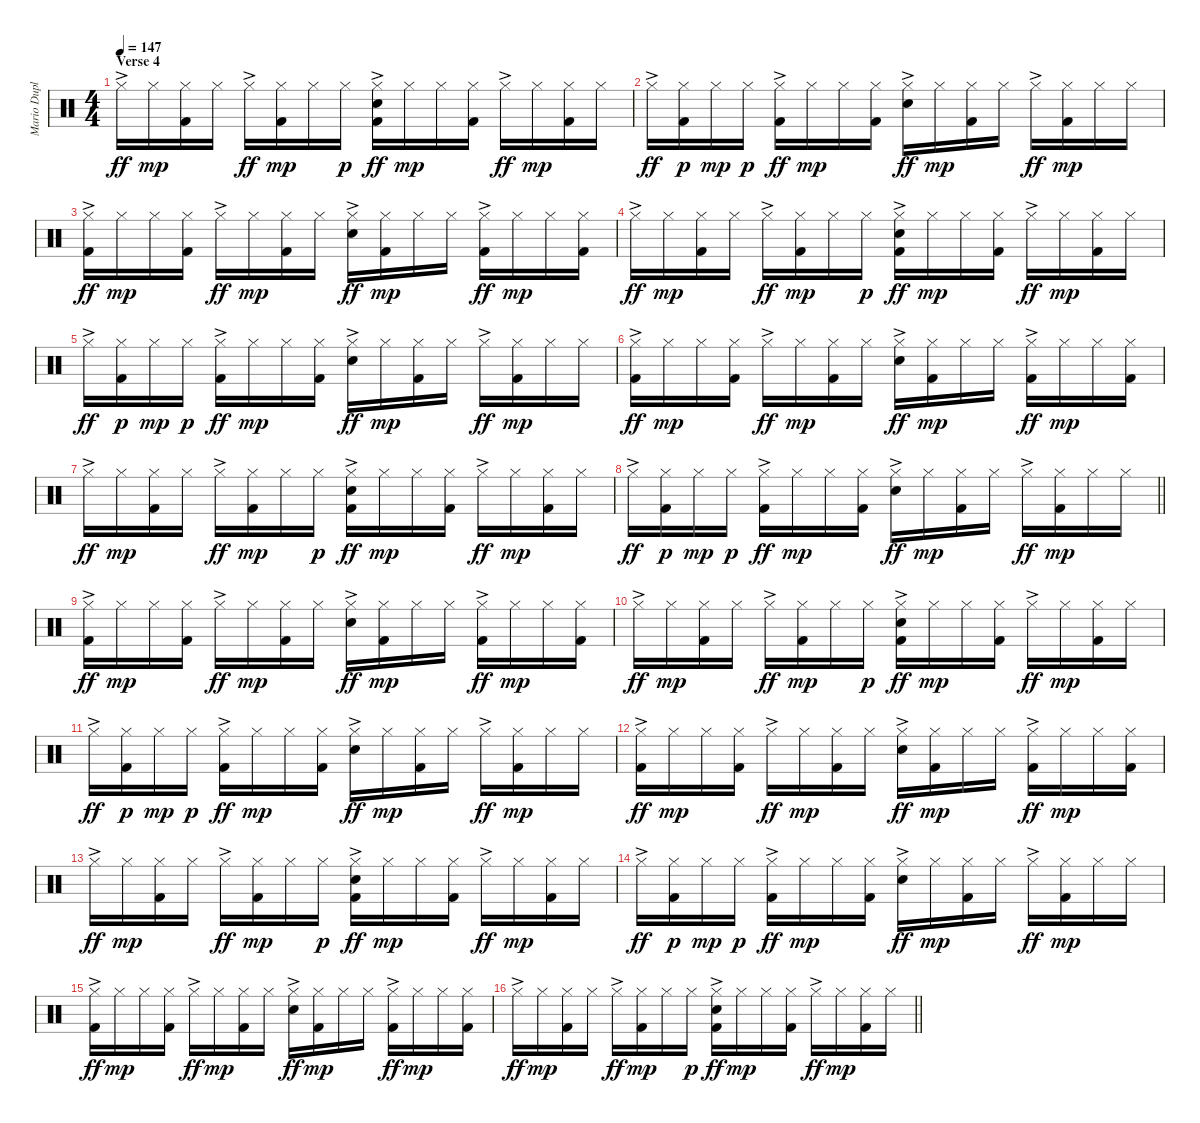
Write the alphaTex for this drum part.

\track ("Mario Duplantier - DRUMS" "Mario Dupl") {instrument percussion}
\staff {score}
\articulation defaults
\ts (4 4)
\section ("" "Verse 4")
\tempo 147
\clef neutral
\ks c "Hi-Hat (closed)"{ac}.16{dy ff} "Hi-Hat (closed)".16{dy mp}
("Hi-Hat (closed)" "Kick (hit) 2").16 "Hi-Hat (closed)".16 "Hi-Hat (closed)"{ac}.16{dy ff} ("Hi-Hat (closed)" "Kick (hit) 2").16{dy mp} "Hi-Hat (closed)".16 "Hi-Hat (closed)".16{dy p} ("Hi-Hat (closed)"{ac} "Electric Snare (hit)" "Kick (hit) 2").16{dy ff} "Hi-Hat (closed)".16{dy mp} "Hi-Hat (closed)".16 ("Hi-Hat (closed)" "Kick (hit) 2").16 "Hi-Hat (closed)"{ac}.16{dy ff} "Hi-Hat (closed)".16{dy mp} ("Hi-Hat (closed)" "Kick (hit) 2").16 "Hi-Hat (closed)".16 |
"Hi-Hat (closed)"{ac}.16{dy ff} ("Hi-Hat (closed)" "Kick (hit) 2").16{dy p} "Hi-Hat (closed)".16{dy mp} "Hi-Hat (closed)".16{dy p} ("Hi-Hat (closed)"{ac} "Kick (hit) 2").16{dy ff} "Hi-Hat (closed)".16{dy mp} "Hi-Hat (closed)".16 ("Hi-Hat (closed)" "Kick (hit) 2").16 ("Hi-Hat (closed)"{ac} "Electric Snare (hit)").16{dy ff} "Hi-Hat (closed)".16{dy mp} ("Hi-Hat (closed)" "Kick (hit) 2").16 "Hi-Hat (closed)".16 "Hi-Hat (closed)"{ac}.16{dy ff} ("Hi-Hat (closed)" "Kick (hit) 2").16{dy mp} "Hi-Hat (closed)".16 "Hi-Hat (closed)".16 |
("Hi-Hat (closed)"{ac} "Kick (hit) 2").16{dy ff} "Hi-Hat (closed)".16{dy mp} "Hi-Hat (closed)".16 ("Hi-Hat (closed)" "Kick (hit) 2").16 "Hi-Hat (closed)"{ac}.16{dy ff} "Hi-Hat (closed)".16{dy mp} ("Hi-Hat (closed)" "Kick (hit) 2").16 "Hi-Hat (closed)".16 ("Hi-Hat (closed)"{ac} "Electric Snare (hit)").16{dy ff} ("Hi-Hat (closed)" "Kick (hit) 2").16{dy mp} "Hi-Hat (closed)".16 "Hi-Hat (closed)".16 ("Hi-Hat (closed)"{ac} "Kick (hit) 2").16{dy ff} "Hi-Hat (closed)".16{dy mp} "Hi-Hat (closed)".16 ("Hi-Hat (closed)" "Kick (hit) 2").16 |
"Hi-Hat (closed)"{ac}.16{dy ff} "Hi-Hat (closed)".16{dy mp} ("Hi-Hat (closed)" "Kick (hit) 2").16 "Hi-Hat (closed)".16 "Hi-Hat (closed)"{ac}.16{dy ff} ("Hi-Hat (closed)" "Kick (hit) 2").16{dy mp} "Hi-Hat (closed)".16 "Hi-Hat (closed)".16{dy p} ("Hi-Hat (closed)"{ac} "Electric Snare (hit)" "Kick (hit) 2").16{dy ff} "Hi-Hat (closed)".16{dy mp} "Hi-Hat (closed)".16 ("Hi-Hat (closed)" "Kick (hit) 2").16 "Hi-Hat (closed)"{ac}.16{dy ff} "Hi-Hat (closed)".16{dy mp} ("Hi-Hat (closed)" "Kick (hit) 2").16 "Hi-Hat (closed)".16 |
"Hi-Hat (closed)"{ac}.16{dy ff} ("Hi-Hat (closed)" "Kick (hit) 2").16{dy p} "Hi-Hat (closed)".16{dy mp} "Hi-Hat (closed)".16{dy p} ("Hi-Hat (closed)"{ac} "Kick (hit) 2").16{dy ff} "Hi-Hat (closed)".16{dy mp} "Hi-Hat (closed)".16 ("Hi-Hat (closed)" "Kick (hit) 2").16 ("Hi-Hat (closed)"{ac} "Electric Snare (hit)").16{dy ff} "Hi-Hat (closed)".16{dy mp} ("Hi-Hat (closed)" "Kick (hit) 2").16 "Hi-Hat (closed)".16 "Hi-Hat (closed)"{ac}.16{dy ff} ("Hi-Hat (closed)" "Kick (hit) 2").16{dy mp} "Hi-Hat (closed)".16 "Hi-Hat (closed)".16 |
("Hi-Hat (closed)"{ac} "Kick (hit) 2").16{dy ff} "Hi-Hat (closed)".16{dy mp} "Hi-Hat (closed)".16 ("Hi-Hat (closed)" "Kick (hit) 2").16 "Hi-Hat (closed)"{ac}.16{dy ff} "Hi-Hat (closed)".16{dy mp} ("Hi-Hat (closed)" "Kick (hit) 2").16 "Hi-Hat (closed)".16 ("Hi-Hat (closed)"{ac} "Electric Snare (hit)").16{dy ff} ("Hi-Hat (closed)" "Kick (hit) 2").16{dy mp} "Hi-Hat (closed)".16 "Hi-Hat (closed)".16 ("Hi-Hat (closed)"{ac} "Kick (hit) 2").16{dy ff} "Hi-Hat (closed)".16{dy mp} "Hi-Hat (closed)".16 ("Hi-Hat (closed)" "Kick (hit) 2").16 |
"Hi-Hat (closed)"{ac}.16{dy ff} "Hi-Hat (closed)".16{dy mp} ("Hi-Hat (closed)" "Kick (hit) 2").16 "Hi-Hat (closed)".16 "Hi-Hat (closed)"{ac}.16{dy ff} ("Hi-Hat (closed)" "Kick (hit) 2").16{dy mp} "Hi-Hat (closed)".16 "Hi-Hat (closed)".16{dy p} ("Hi-Hat (closed)"{ac} "Electric Snare (hit)" "Kick (hit) 2").16{dy ff} "Hi-Hat (closed)".16{dy mp} "Hi-Hat (closed)".16 ("Hi-Hat (closed)" "Kick (hit) 2").16 "Hi-Hat (closed)"{ac}.16{dy ff} "Hi-Hat (closed)".16{dy mp} ("Hi-Hat (closed)" "Kick (hit) 2").16 "Hi-Hat (closed)".16 |
\barLineRight lightlight "Hi-Hat (closed)"{ac}.16{dy ff}
("Hi-Hat (closed)" "Kick (hit) 2").16{dy p} "Hi-Hat (closed)".16{dy mp} "Hi-Hat (closed)".16{dy p} ("Hi-Hat (closed)"{ac} "Kick (hit) 2").16{dy ff} "Hi-Hat (closed)".16{dy mp} "Hi-Hat (closed)".16 ("Hi-Hat (closed)" "Kick (hit) 2").16 ("Hi-Hat (closed)"{ac} "Electric Snare (hit)").16{dy ff} "Hi-Hat (closed)".16{dy mp} ("Hi-Hat (closed)" "Kick (hit) 2").16 "Hi-Hat (closed)".16 "Hi-Hat (closed)"{ac}.16{dy ff} ("Hi-Hat (closed)" "Kick (hit) 2").16{dy mp} "Hi-Hat (closed)".16 "Hi-Hat (closed)".16 |
\section ("" "")
("Hi-Hat (closed)"{ac} "Kick (hit) 2").16{dy ff} "Hi-Hat (closed)".16{dy mp} "Hi-Hat (closed)".16 ("Hi-Hat (closed)" "Kick (hit) 2").16 "Hi-Hat (closed)"{ac}.16{dy ff} "Hi-Hat (closed)".16{dy mp} ("Hi-Hat (closed)" "Kick (hit) 2").16 "Hi-Hat (closed)".16 ("Hi-Hat (closed)"{ac} "Electric Snare (hit)").16{dy ff} ("Hi-Hat (closed)" "Kick (hit) 2").16{dy mp} "Hi-Hat (closed)".16 "Hi-Hat (closed)".16 ("Hi-Hat (closed)"{ac} "Kick (hit) 2").16{dy ff} "Hi-Hat (closed)".16{dy mp} "Hi-Hat (closed)".16 ("Hi-Hat (closed)" "Kick (hit) 2").16 |
"Hi-Hat (closed)"{ac}.16{dy ff} "Hi-Hat (closed)".16{dy mp} ("Hi-Hat (closed)" "Kick (hit) 2").16 "Hi-Hat (closed)".16 "Hi-Hat (closed)"{ac}.16{dy ff} ("Hi-Hat (closed)" "Kick (hit) 2").16{dy mp} "Hi-Hat (closed)".16 "Hi-Hat (closed)".16{dy p} ("Hi-Hat (closed)"{ac} "Electric Snare (hit)" "Kick (hit) 2").16{dy ff} "Hi-Hat (closed)".16{dy mp} "Hi-Hat (closed)".16 ("Hi-Hat (closed)" "Kick (hit) 2").16 "Hi-Hat (closed)"{ac}.16{dy ff} "Hi-Hat (closed)".16{dy mp} ("Hi-Hat (closed)" "Kick (hit) 2").16 "Hi-Hat (closed)".16 |
"Hi-Hat (closed)"{ac}.16{dy ff} ("Hi-Hat (closed)" "Kick (hit) 2").16{dy p} "Hi-Hat (closed)".16{dy mp} "Hi-Hat (closed)".16{dy p} ("Hi-Hat (closed)"{ac} "Kick (hit) 2").16{dy ff} "Hi-Hat (closed)".16{dy mp} "Hi-Hat (closed)".16 ("Hi-Hat (closed)" "Kick (hit) 2").16 ("Hi-Hat (closed)"{ac} "Electric Snare (hit)").16{dy ff} "Hi-Hat (closed)".16{dy mp} ("Hi-Hat (closed)" "Kick (hit) 2").16 "Hi-Hat (closed)".16 "Hi-Hat (closed)"{ac}.16{dy ff} ("Hi-Hat (closed)" "Kick (hit) 2").16{dy mp} "Hi-Hat (closed)".16 "Hi-Hat (closed)".16 |
("Hi-Hat (closed)"{ac} "Kick (hit) 2").16{dy ff} "Hi-Hat (closed)".16{dy mp} "Hi-Hat (closed)".16 ("Hi-Hat (closed)" "Kick (hit) 2").16 "Hi-Hat (closed)"{ac}.16{dy ff} "Hi-Hat (closed)".16{dy mp} ("Hi-Hat (closed)" "Kick (hit) 2").16 "Hi-Hat (closed)".16 ("Hi-Hat (closed)"{ac} "Electric Snare (hit)").16{dy ff} ("Hi-Hat (closed)" "Kick (hit) 2").16{dy mp} "Hi-Hat (closed)".16 "Hi-Hat (closed)".16 ("Hi-Hat (closed)"{ac} "Kick (hit) 2").16{dy ff} "Hi-Hat (closed)".16{dy mp} "Hi-Hat (closed)".16 ("Hi-Hat (closed)" "Kick (hit) 2").16 |
"Hi-Hat (closed)"{ac}.16{dy ff} "Hi-Hat (closed)".16{dy mp} ("Hi-Hat (closed)" "Kick (hit) 2").16 "Hi-Hat (closed)".16 "Hi-Hat (closed)"{ac}.16{dy ff} ("Hi-Hat (closed)" "Kick (hit) 2").16{dy mp} "Hi-Hat (closed)".16 "Hi-Hat (closed)".16{dy p} ("Hi-Hat (closed)"{ac} "Electric Snare (hit)" "Kick (hit) 2").16{dy ff} "Hi-Hat (closed)".16{dy mp} "Hi-Hat (closed)".16 ("Hi-Hat (closed)" "Kick (hit) 2").16 "Hi-Hat (closed)"{ac}.16{dy ff} "Hi-Hat (closed)".16{dy mp} ("Hi-Hat (closed)" "Kick (hit) 2").16 "Hi-Hat (closed)".16 |
"Hi-Hat (closed)"{ac}.16{dy ff} ("Hi-Hat (closed)" "Kick (hit) 2").16{dy p} "Hi-Hat (closed)".16{dy mp} "Hi-Hat (closed)".16{dy p} ("Hi-Hat (closed)"{ac} "Kick (hit) 2").16{dy ff} "Hi-Hat (closed)".16{dy mp} "Hi-Hat (closed)".16 ("Hi-Hat (closed)" "Kick (hit) 2").16 ("Hi-Hat (closed)"{ac} "Electric Snare (hit)").16{dy ff} "Hi-Hat (closed)".16{dy mp} ("Hi-Hat (closed)" "Kick (hit) 2").16 "Hi-Hat (closed)".16 "Hi-Hat (closed)"{ac}.16{dy ff} ("Hi-Hat (closed)" "Kick (hit) 2").16{dy mp} "Hi-Hat (closed)".16 "Hi-Hat (closed)".16 |
("Hi-Hat (closed)"{ac} "Kick (hit) 2").16{dy ff} "Hi-Hat (closed)".16{dy mp} "Hi-Hat (closed)".16 ("Hi-Hat (closed)" "Kick (hit) 2").16 "Hi-Hat (closed)"{ac}.16{dy ff} "Hi-Hat (closed)".16{dy mp} ("Hi-Hat (closed)" "Kick (hit) 2").16 "Hi-Hat (closed)".16 ("Hi-Hat (closed)"{ac} "Electric Snare (hit)").16{dy ff} ("Hi-Hat (closed)" "Kick (hit) 2").16{dy mp} "Hi-Hat (closed)".16 "Hi-Hat (closed)".16 ("Hi-Hat (closed)"{ac} "Kick (hit) 2").16{dy ff} "Hi-Hat (closed)".16{dy mp} "Hi-Hat (closed)".16 ("Hi-Hat (closed)" "Kick (hit) 2").16 |
\barLineRight lightlight "Hi-Hat (closed)"{ac}.16{dy ff} "Hi-Hat (closed)".16{dy mp}
("Hi-Hat (closed)" "Kick (hit) 2").16 "Hi-Hat (closed)".16 "Hi-Hat (closed)"{ac}.16{dy ff} ("Hi-Hat (closed)" "Kick (hit) 2").16{dy mp} "Hi-Hat (closed)".16 "Hi-Hat (closed)".16{dy p} ("Hi-Hat (closed)"{ac} "Electric Snare (hit)" "Kick (hit) 2").16{dy ff} "Hi-Hat (closed)".16{dy mp} "Hi-Hat (closed)".16 ("Hi-Hat (closed)" "Kick (hit) 2").16 "Hi-Hat (closed)"{ac}.16{dy ff} "Hi-Hat (closed)".16{dy mp} ("Hi-Hat (closed)" "Kick (hit) 2").16 "Hi-Hat (closed)".16
